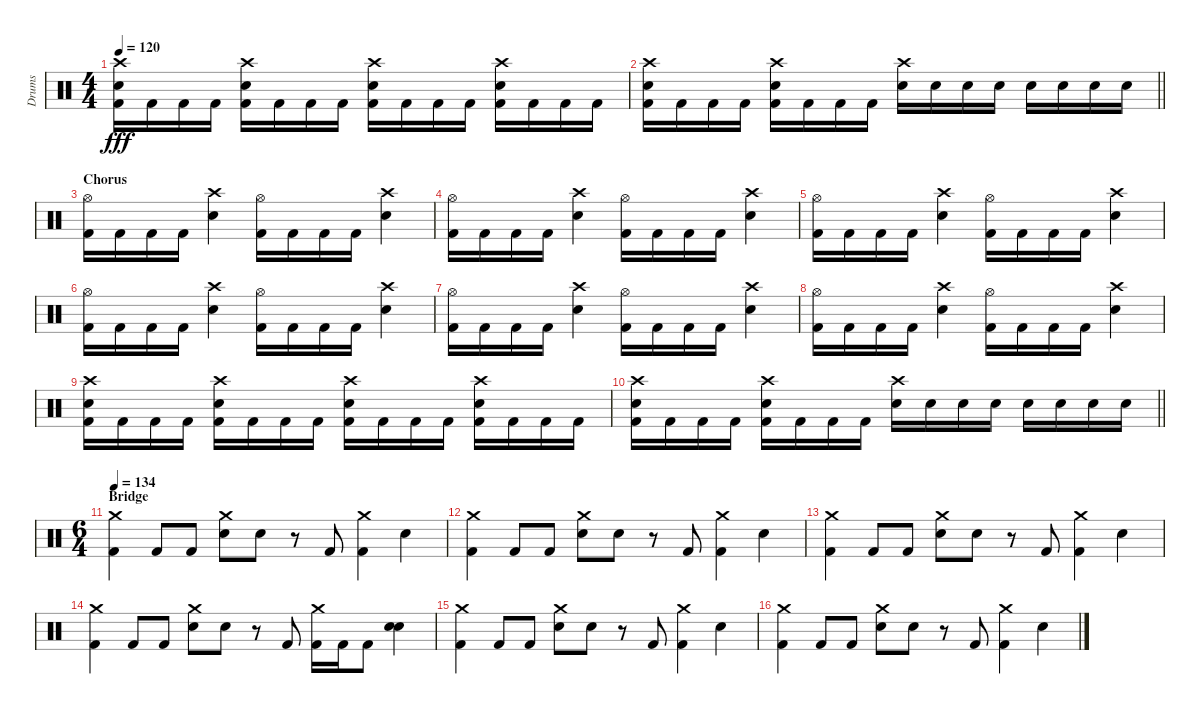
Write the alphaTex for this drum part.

\track ("Drums" "Drums") {instrument percussion}
\staff {score}
\articulation defaults
\ts (4 4)
\tempo 120
\clef neutral
\ks c
("Crash high (hit)" "Electric Snare (hit)" "Kick (hit) 2").16{dy fff} "Kick (hit) 2".16 "Kick (hit) 2".16 "Kick (hit) 2".16 ("Crash high (hit)" "Electric Snare (hit)" "Kick (hit) 2").16 "Kick (hit) 2".16 "Kick (hit) 2".16 "Kick (hit) 2".16 ("Crash high (hit)" "Electric Snare (hit)" "Kick (hit) 2").16 "Kick (hit) 2".16 "Kick (hit) 2".16 "Kick (hit) 2".16 ("Crash high (hit)" "Electric Snare (hit)" "Kick (hit) 2").16 "Kick (hit) 2".16 "Kick (hit) 2".16 "Kick (hit) 2".16 |
\barLineRight lightlight
("Crash high (hit)" "Electric Snare (hit)" "Kick (hit) 2").16 "Kick (hit) 2".16 "Kick (hit) 2".16 "Kick (hit) 2".16 ("Crash high (hit)" "Electric Snare (hit)" "Kick (hit) 2").16 "Kick (hit) 2".16 "Kick (hit) 2".16 "Kick (hit) 2".16 ("Crash high (hit)" "Electric Snare (hit)").16 "Electric Snare (hit)".16 "Electric Snare (hit)".16 "Electric Snare (hit)".16 "Electric Snare (hit)".16 "Electric Snare (hit)".16 "Electric Snare (hit)".16 "Electric Snare (hit)".16 |
\section ("" "Chorus")
("Hi-Hat (open)" "Kick (hit) 2").16 "Kick (hit) 2".16 "Kick (hit) 2".16 "Kick (hit) 2".16 ("Crash high (hit)" "Electric Snare (hit)").4 ("Hi-Hat (open)" "Kick (hit) 2").16 "Kick (hit) 2".16 "Kick (hit) 2".16 "Kick (hit) 2".16 ("Crash high (hit)" "Electric Snare (hit)").4 |
("Hi-Hat (open)" "Kick (hit) 2").16 "Kick (hit) 2".16 "Kick (hit) 2".16 "Kick (hit) 2".16 ("Crash high (hit)" "Electric Snare (hit)").4 ("Hi-Hat (open)" "Kick (hit) 2").16 "Kick (hit) 2".16 "Kick (hit) 2".16 "Kick (hit) 2".16 ("Crash high (hit)" "Electric Snare (hit)").4 |
("Hi-Hat (open)" "Kick (hit) 2").16 "Kick (hit) 2".16 "Kick (hit) 2".16 "Kick (hit) 2".16 ("Crash high (hit)" "Electric Snare (hit)").4 ("Hi-Hat (open)" "Kick (hit) 2").16 "Kick (hit) 2".16 "Kick (hit) 2".16 "Kick (hit) 2".16 ("Crash high (hit)" "Electric Snare (hit)").4 |
("Hi-Hat (open)" "Kick (hit) 2").16 "Kick (hit) 2".16 "Kick (hit) 2".16 "Kick (hit) 2".16 ("Crash high (hit)" "Electric Snare (hit)").4 ("Hi-Hat (open)" "Kick (hit) 2").16 "Kick (hit) 2".16 "Kick (hit) 2".16 "Kick (hit) 2".16 ("Crash high (hit)" "Electric Snare (hit)").4 |
("Hi-Hat (open)" "Kick (hit) 2").16 "Kick (hit) 2".16 "Kick (hit) 2".16 "Kick (hit) 2".16 ("Crash high (hit)" "Electric Snare (hit)").4 ("Hi-Hat (open)" "Kick (hit) 2").16 "Kick (hit) 2".16 "Kick (hit) 2".16 "Kick (hit) 2".16 ("Crash high (hit)" "Electric Snare (hit)").4 |
("Hi-Hat (open)" "Kick (hit) 2").16 "Kick (hit) 2".16 "Kick (hit) 2".16 "Kick (hit) 2".16 ("Crash high (hit)" "Electric Snare (hit)").4 ("Hi-Hat (open)" "Kick (hit) 2").16 "Kick (hit) 2".16 "Kick (hit) 2".16 "Kick (hit) 2".16 ("Crash high (hit)" "Electric Snare (hit)").4 |
("Crash high (hit)" "Electric Snare (hit)" "Kick (hit) 2").16 "Kick (hit) 2".16 "Kick (hit) 2".16 "Kick (hit) 2".16 ("Crash high (hit)" "Electric Snare (hit)" "Kick (hit) 2").16 "Kick (hit) 2".16 "Kick (hit) 2".16 "Kick (hit) 2".16 ("Crash high (hit)" "Electric Snare (hit)" "Kick (hit) 2").16 "Kick (hit) 2".16 "Kick (hit) 2".16 "Kick (hit) 2".16 ("Crash high (hit)" "Electric Snare (hit)" "Kick (hit) 2").16 "Kick (hit) 2".16 "Kick (hit) 2".16 "Kick (hit) 2".16 |
\barLineRight lightlight
("Crash high (hit)" "Electric Snare (hit)" "Kick (hit) 2").16 "Kick (hit) 2".16 "Kick (hit) 2".16 "Kick (hit) 2".16 ("Crash high (hit)" "Electric Snare (hit)" "Kick (hit) 2").16 "Kick (hit) 2".16 "Kick (hit) 2".16 "Kick (hit) 2".16 ("Crash high (hit)" "Electric Snare (hit)").16 "Electric Snare (hit)".16 "Electric Snare (hit)".16 "Electric Snare (hit)".16 "Electric Snare (hit)".16 "Electric Snare (hit)".16 "Electric Snare (hit)".16 "Electric Snare (hit)".16 |
\ts (6 4)
\section ("" "Bridge")
\tempo 134
("Crash medium (hit)" "Kick (hit) 2").4 "Kick (hit) 2".8 "Kick (hit) 2".8 ("Crash medium (hit)" "Electric Snare (hit)").8 "Electric Snare (hit)".8 r.8 "Kick (hit) 2".8 ("Crash medium (hit)" "Kick (hit) 2").4 "Electric Snare (hit)".4 |
("Crash medium (hit)" "Kick (hit) 2").4 "Kick (hit) 2".8 "Kick (hit) 2".8 ("Crash medium (hit)" "Electric Snare (hit)").8 "Electric Snare (hit)".8 r.8 "Kick (hit) 2".8 ("Crash medium (hit)" "Kick (hit) 2").4 "Electric Snare (hit)".4 |
("Crash medium (hit)" "Kick (hit) 2").4 "Kick (hit) 2".8 "Kick (hit) 2".8 ("Crash medium (hit)" "Electric Snare (hit)").8 "Electric Snare (hit)".8 r.8 "Kick (hit) 2".8 ("Crash medium (hit)" "Kick (hit) 2").4 "Electric Snare (hit)".4 |
("Crash medium (hit)" "Kick (hit) 2").4 "Kick (hit) 2".8 "Kick (hit) 2".8 ("Crash medium (hit)" "Electric Snare (hit)").8 "Electric Snare (hit)".8 r.8 "Kick (hit) 2".8 ("Crash medium (hit)" "Kick (hit) 2").16 "Kick (hit) 2".16 "Kick (hit) 2".8 ("Electric Snare (hit)" "Electric Snare (hit)").4 |
("Crash medium (hit)" "Kick (hit) 2").4 "Kick (hit) 2".8 "Kick (hit) 2".8 ("Crash medium (hit)" "Electric Snare (hit)").8 "Electric Snare (hit)".8 r.8 "Kick (hit) 2".8 ("Crash medium (hit)" "Kick (hit) 2").4 "Electric Snare (hit)".4 |
("Crash medium (hit)" "Kick (hit) 2").4 "Kick (hit) 2".8 "Kick (hit) 2".8 ("Crash medium (hit)" "Electric Snare (hit)").8 "Electric Snare (hit)".8 r.8 "Kick (hit) 2".8 ("Crash medium (hit)" "Kick (hit) 2").4 "Electric Snare (hit)".4
